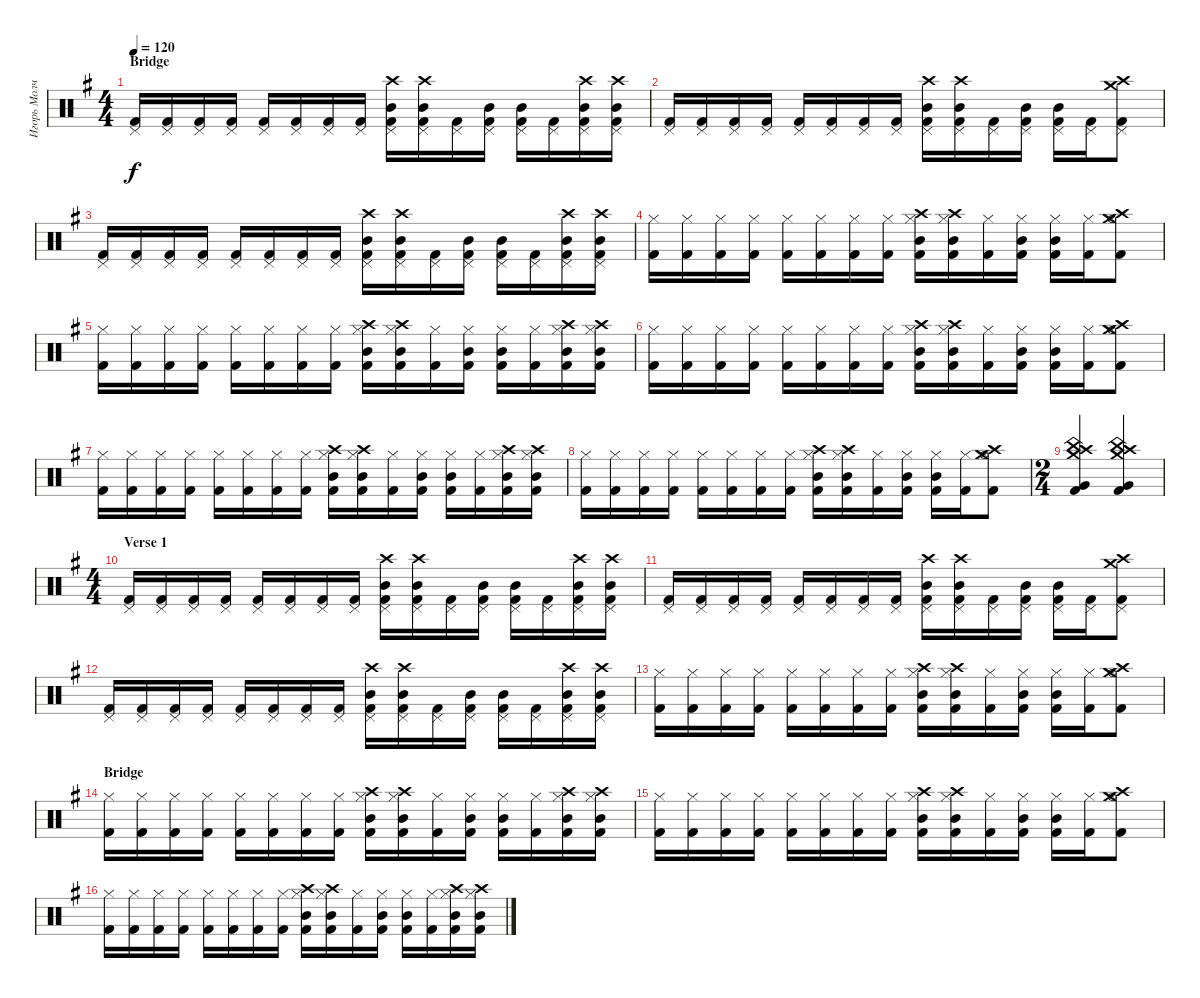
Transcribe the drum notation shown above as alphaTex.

\track ("Игорь Молчанов" "Игорь Молч") {instrument percussion}
\staff {score}
\articulation defaults
\ts (4 4)
\section ("" "Bridge")
\tempo 120
\clef neutral
\ks eminor
("Pedal Hi-Hat (hit)" "Kick (hit) 2").16{dy f} ("Pedal Hi-Hat (hit)" "Kick (hit) 2").16 ("Pedal Hi-Hat (hit)" "Kick (hit) 2").16 ("Pedal Hi-Hat (hit)" "Kick (hit) 2").16 ("Pedal Hi-Hat (hit)" "Kick (hit) 2").16 ("Pedal Hi-Hat (hit)" "Kick (hit) 2").16 ("Pedal Hi-Hat (hit)" "Kick (hit) 2").16 ("Pedal Hi-Hat (hit)" "Kick (hit) 2").16 ("Mid Tom (hit)" "Crash high (hit)" "Pedal Hi-Hat (hit)" "Kick (hit) 2").16 ("Mid Tom (hit)" "Crash high (hit)" "Pedal Hi-Hat (hit)" "Kick (hit) 2").16 ("Pedal Hi-Hat (hit)" "Kick (hit) 2").16 ("Mid Tom (hit)" "Pedal Hi-Hat (hit)" "Kick (hit) 2").16 ("Mid Tom (hit)" "Pedal Hi-Hat (hit)" "Kick (hit) 2").16 ("Pedal Hi-Hat (hit)" "Kick (hit) 2").16 ("Mid Tom (hit)" "Crash high (hit)" "Pedal Hi-Hat (hit)" "Kick (hit) 2").16 ("Mid Tom (hit)" "Crash high (hit)" "Pedal Hi-Hat (hit)" "Kick (hit) 2").16 |
("Pedal Hi-Hat (hit)" "Kick (hit) 2").16 ("Pedal Hi-Hat (hit)" "Kick (hit) 2").16 ("Pedal Hi-Hat (hit)" "Kick (hit) 2").16 ("Pedal Hi-Hat (hit)" "Kick (hit) 2").16 ("Pedal Hi-Hat (hit)" "Kick (hit) 2").16 ("Pedal Hi-Hat (hit)" "Kick (hit) 2").16 ("Pedal Hi-Hat (hit)" "Kick (hit) 2").16 ("Pedal Hi-Hat (hit)" "Kick (hit) 2").16 ("Mid Tom (hit)" "Crash high (hit)" "Pedal Hi-Hat (hit)" "Kick (hit) 2").16 ("Mid Tom (hit)" "Crash high (hit)" "Pedal Hi-Hat (hit)" "Kick (hit) 2").16 ("Pedal Hi-Hat (hit)" "Kick (hit) 2").16 ("Mid Tom (hit)" "Pedal Hi-Hat (hit)" "Kick (hit) 2").16 ("Mid Tom (hit)" "Pedal Hi-Hat (hit)" "Kick (hit) 2").16 ("Pedal Hi-Hat (hit)" "Kick (hit) 2").16 ("Crash medium (hit)" "Crash high (hit)" "Pedal Hi-Hat (hit)" "Kick (hit) 2").8 |
("Pedal Hi-Hat (hit)" "Kick (hit) 2").16 ("Pedal Hi-Hat (hit)" "Kick (hit) 2").16 ("Pedal Hi-Hat (hit)" "Kick (hit) 2").16 ("Pedal Hi-Hat (hit)" "Kick (hit) 2").16 ("Pedal Hi-Hat (hit)" "Kick (hit) 2").16 ("Pedal Hi-Hat (hit)" "Kick (hit) 2").16 ("Pedal Hi-Hat (hit)" "Kick (hit) 2").16 ("Pedal Hi-Hat (hit)" "Kick (hit) 2").16 ("Mid Tom (hit)" "Crash high (hit)" "Pedal Hi-Hat (hit)" "Kick (hit) 2").16 ("Mid Tom (hit)" "Crash high (hit)" "Pedal Hi-Hat (hit)" "Kick (hit) 2").16 ("Pedal Hi-Hat (hit)" "Kick (hit) 2").16 ("Mid Tom (hit)" "Pedal Hi-Hat (hit)" "Kick (hit) 2").16 ("Mid Tom (hit)" "Pedal Hi-Hat (hit)" "Kick (hit) 2").16 ("Pedal Hi-Hat (hit)" "Kick (hit) 2").16 ("Mid Tom (hit)" "Crash high (hit)" "Pedal Hi-Hat (hit)" "Kick (hit) 2").16 ("Mid Tom (hit)" "Crash high (hit)" "Pedal Hi-Hat (hit)" "Kick (hit) 2").16 |
("Hi-Hat (closed)" "Kick (hit) 2").16 ("Hi-Hat (closed)" "Kick (hit) 2").16 ("Hi-Hat (closed)" "Kick (hit) 2").16 ("Hi-Hat (closed)" "Kick (hit) 2").16 ("Hi-Hat (closed)" "Kick (hit) 2").16 ("Hi-Hat (closed)" "Kick (hit) 2").16 ("Hi-Hat (closed)" "Kick (hit) 2").16 ("Hi-Hat (closed)" "Kick (hit) 2").16 ("Mid Tom (hit)" "Crash high (hit)" "Hi-Hat (closed)" "Kick (hit) 2").16 ("Mid Tom (hit)" "Crash high (hit)" "Hi-Hat (closed)" "Kick (hit) 2").16 ("Hi-Hat (closed)" "Kick (hit) 2").16 ("Mid Tom (hit)" "Hi-Hat (closed)" "Kick (hit) 2").16 ("Mid Tom (hit)" "Hi-Hat (closed)" "Kick (hit) 2").16 ("Hi-Hat (closed)" "Kick (hit) 2").16 ("Crash medium (hit)" "Crash high (hit)" "Hi-Hat (open)" "Kick (hit) 2").8 |
\section ("" "")
("Hi-Hat (closed)" "Kick (hit) 2").16 ("Hi-Hat (closed)" "Kick (hit) 2").16 ("Hi-Hat (closed)" "Kick (hit) 2").16 ("Hi-Hat (closed)" "Kick (hit) 2").16 ("Hi-Hat (closed)" "Kick (hit) 2").16 ("Hi-Hat (closed)" "Kick (hit) 2").16 ("Hi-Hat (closed)" "Kick (hit) 2").16 ("Hi-Hat (closed)" "Kick (hit) 2").16 ("Mid Tom (hit)" "Crash high (hit)" "Hi-Hat (closed)" "Kick (hit) 2").16 ("Mid Tom (hit)" "Crash high (hit)" "Hi-Hat (closed)" "Kick (hit) 2").16 ("Hi-Hat (closed)" "Kick (hit) 2").16 ("Mid Tom (hit)" "Hi-Hat (closed)" "Kick (hit) 2").16 ("Mid Tom (hit)" "Hi-Hat (closed)" "Kick (hit) 2").16 ("Hi-Hat (closed)" "Kick (hit) 2").16 ("Mid Tom (hit)" "Crash high (hit)" "Hi-Hat (closed)" "Kick (hit) 2").16 ("Mid Tom (hit)" "Crash high (hit)" "Hi-Hat (closed)" "Kick (hit) 2").16 |
\section ("" "")
("Hi-Hat (closed)" "Kick (hit) 2").16 ("Hi-Hat (closed)" "Kick (hit) 2").16 ("Hi-Hat (closed)" "Kick (hit) 2").16 ("Hi-Hat (closed)" "Kick (hit) 2").16 ("Hi-Hat (closed)" "Kick (hit) 2").16 ("Hi-Hat (closed)" "Kick (hit) 2").16 ("Hi-Hat (closed)" "Kick (hit) 2").16 ("Hi-Hat (closed)" "Kick (hit) 2").16 ("Mid Tom (hit)" "Crash high (hit)" "Hi-Hat (closed)" "Kick (hit) 2").16 ("Mid Tom (hit)" "Crash high (hit)" "Hi-Hat (closed)" "Kick (hit) 2").16 ("Hi-Hat (closed)" "Kick (hit) 2").16 ("Mid Tom (hit)" "Hi-Hat (closed)" "Kick (hit) 2").16 ("Mid Tom (hit)" "Hi-Hat (closed)" "Kick (hit) 2").16 ("Hi-Hat (closed)" "Kick (hit) 2").16 ("Crash medium (hit)" "Crash high (hit)" "Hi-Hat (open)" "Kick (hit) 2").8 |
("Hi-Hat (closed)" "Kick (hit) 2").16 ("Hi-Hat (closed)" "Kick (hit) 2").16 ("Hi-Hat (closed)" "Kick (hit) 2").16 ("Hi-Hat (closed)" "Kick (hit) 2").16 ("Hi-Hat (closed)" "Kick (hit) 2").16 ("Hi-Hat (closed)" "Kick (hit) 2").16 ("Hi-Hat (closed)" "Kick (hit) 2").16 ("Hi-Hat (closed)" "Kick (hit) 2").16 ("Mid Tom (hit)" "Crash high (hit)" "Hi-Hat (closed)" "Kick (hit) 2").16 ("Mid Tom (hit)" "Crash high (hit)" "Hi-Hat (closed)" "Kick (hit) 2").16 ("Hi-Hat (closed)" "Kick (hit) 2").16 ("Mid Tom (hit)" "Hi-Hat (closed)" "Kick (hit) 2").16 ("Mid Tom (hit)" "Hi-Hat (closed)" "Kick (hit) 2").16 ("Hi-Hat (closed)" "Kick (hit) 2").16 ("Mid Tom (hit)" "Crash high (hit)" "Hi-Hat (closed)" "Kick (hit) 2").16 ("Mid Tom (hit)" "Crash high (hit)" "Hi-Hat (closed)" "Kick (hit) 2").16 |
("Hi-Hat (closed)" "Kick (hit) 2").16 ("Hi-Hat (closed)" "Kick (hit) 2").16 ("Hi-Hat (closed)" "Kick (hit) 2").16 ("Hi-Hat (closed)" "Kick (hit) 2").16 ("Hi-Hat (closed)" "Kick (hit) 2").16 ("Hi-Hat (closed)" "Kick (hit) 2").16 ("Hi-Hat (closed)" "Kick (hit) 2").16 ("Hi-Hat (closed)" "Kick (hit) 2").16 ("Mid Tom (hit)" "Crash high (hit)" "Hi-Hat (closed)" "Kick (hit) 2").16 ("Mid Tom (hit)" "Crash high (hit)" "Hi-Hat (closed)" "Kick (hit) 2").16 ("Hi-Hat (closed)" "Kick (hit) 2").16 ("Mid Tom (hit)" "Hi-Hat (closed)" "Kick (hit) 2").16 ("Mid Tom (hit)" "Hi-Hat (closed)" "Kick (hit) 2").16 ("Hi-Hat (closed)" "Kick (hit) 2").16 ("Crash medium (hit)" "Crash high (hit)" "Hi-Hat (open)" "Kick (hit) 2").8 |
\ts (2 4)
("Crash medium (hit)" "China (hit)" "Crash high (hit)" "Very Low Tom (hit)" "Kick (hit) 2").4 ("Crash medium (hit)" "China (hit)" "Crash high (hit)" "Very Low Tom (hit)" "Kick (hit) 2").4 |
\ts (4 4)
\section ("" "Verse 1")
("Pedal Hi-Hat (hit)" "Kick (hit) 2").16 ("Pedal Hi-Hat (hit)" "Kick (hit) 2").16 ("Pedal Hi-Hat (hit)" "Kick (hit) 2").16 ("Pedal Hi-Hat (hit)" "Kick (hit) 2").16 ("Pedal Hi-Hat (hit)" "Kick (hit) 2").16 ("Pedal Hi-Hat (hit)" "Kick (hit) 2").16 ("Pedal Hi-Hat (hit)" "Kick (hit) 2").16 ("Pedal Hi-Hat (hit)" "Kick (hit) 2").16 ("Mid Tom (hit)" "Crash high (hit)" "Pedal Hi-Hat (hit)" "Kick (hit) 2").16 ("Mid Tom (hit)" "Crash high (hit)" "Pedal Hi-Hat (hit)" "Kick (hit) 2").16 ("Pedal Hi-Hat (hit)" "Kick (hit) 2").16 ("Mid Tom (hit)" "Pedal Hi-Hat (hit)" "Kick (hit) 2").16 ("Mid Tom (hit)" "Pedal Hi-Hat (hit)" "Kick (hit) 2").16 ("Pedal Hi-Hat (hit)" "Kick (hit) 2").16 ("Mid Tom (hit)" "Crash high (hit)" "Pedal Hi-Hat (hit)" "Kick (hit) 2").16 ("Mid Tom (hit)" "Crash high (hit)" "Pedal Hi-Hat (hit)" "Kick (hit) 2").16 |
("Pedal Hi-Hat (hit)" "Kick (hit) 2").16 ("Pedal Hi-Hat (hit)" "Kick (hit) 2").16 ("Pedal Hi-Hat (hit)" "Kick (hit) 2").16 ("Pedal Hi-Hat (hit)" "Kick (hit) 2").16 ("Pedal Hi-Hat (hit)" "Kick (hit) 2").16 ("Pedal Hi-Hat (hit)" "Kick (hit) 2").16 ("Pedal Hi-Hat (hit)" "Kick (hit) 2").16 ("Pedal Hi-Hat (hit)" "Kick (hit) 2").16 ("Mid Tom (hit)" "Crash high (hit)" "Pedal Hi-Hat (hit)" "Kick (hit) 2").16 ("Mid Tom (hit)" "Crash high (hit)" "Pedal Hi-Hat (hit)" "Kick (hit) 2").16 ("Pedal Hi-Hat (hit)" "Kick (hit) 2").16 ("Mid Tom (hit)" "Pedal Hi-Hat (hit)" "Kick (hit) 2").16 ("Mid Tom (hit)" "Pedal Hi-Hat (hit)" "Kick (hit) 2").16 ("Pedal Hi-Hat (hit)" "Kick (hit) 2").16 ("Crash medium (hit)" "Crash high (hit)" "Pedal Hi-Hat (hit)" "Kick (hit) 2").8 |
("Pedal Hi-Hat (hit)" "Kick (hit) 2").16 ("Pedal Hi-Hat (hit)" "Kick (hit) 2").16 ("Pedal Hi-Hat (hit)" "Kick (hit) 2").16 ("Pedal Hi-Hat (hit)" "Kick (hit) 2").16 ("Pedal Hi-Hat (hit)" "Kick (hit) 2").16 ("Pedal Hi-Hat (hit)" "Kick (hit) 2").16 ("Pedal Hi-Hat (hit)" "Kick (hit) 2").16 ("Pedal Hi-Hat (hit)" "Kick (hit) 2").16 ("Mid Tom (hit)" "Crash high (hit)" "Pedal Hi-Hat (hit)" "Kick (hit) 2").16 ("Mid Tom (hit)" "Crash high (hit)" "Pedal Hi-Hat (hit)" "Kick (hit) 2").16 ("Pedal Hi-Hat (hit)" "Kick (hit) 2").16 ("Mid Tom (hit)" "Pedal Hi-Hat (hit)" "Kick (hit) 2").16 ("Mid Tom (hit)" "Pedal Hi-Hat (hit)" "Kick (hit) 2").16 ("Pedal Hi-Hat (hit)" "Kick (hit) 2").16 ("Mid Tom (hit)" "Crash high (hit)" "Pedal Hi-Hat (hit)" "Kick (hit) 2").16 ("Mid Tom (hit)" "Crash high (hit)" "Pedal Hi-Hat (hit)" "Kick (hit) 2").16 |
("Hi-Hat (closed)" "Kick (hit) 2").16 ("Hi-Hat (closed)" "Kick (hit) 2").16 ("Hi-Hat (closed)" "Kick (hit) 2").16 ("Hi-Hat (closed)" "Kick (hit) 2").16 ("Hi-Hat (closed)" "Kick (hit) 2").16 ("Hi-Hat (closed)" "Kick (hit) 2").16 ("Hi-Hat (closed)" "Kick (hit) 2").16 ("Hi-Hat (closed)" "Kick (hit) 2").16 ("Mid Tom (hit)" "Crash high (hit)" "Hi-Hat (closed)" "Kick (hit) 2").16 ("Mid Tom (hit)" "Crash high (hit)" "Hi-Hat (closed)" "Kick (hit) 2").16 ("Hi-Hat (closed)" "Kick (hit) 2").16 ("Mid Tom (hit)" "Hi-Hat (closed)" "Kick (hit) 2").16 ("Mid Tom (hit)" "Hi-Hat (closed)" "Kick (hit) 2").16 ("Hi-Hat (closed)" "Kick (hit) 2").16 ("Crash medium (hit)" "Crash high (hit)" "Hi-Hat (open)" "Kick (hit) 2").8 |
\section ("" "Bridge")
("Hi-Hat (closed)" "Kick (hit) 2").16 ("Hi-Hat (closed)" "Kick (hit) 2").16 ("Hi-Hat (closed)" "Kick (hit) 2").16 ("Hi-Hat (closed)" "Kick (hit) 2").16 ("Hi-Hat (closed)" "Kick (hit) 2").16 ("Hi-Hat (closed)" "Kick (hit) 2").16 ("Hi-Hat (closed)" "Kick (hit) 2").16 ("Hi-Hat (closed)" "Kick (hit) 2").16 ("Mid Tom (hit)" "Crash high (hit)" "Hi-Hat (closed)" "Kick (hit) 2").16 ("Mid Tom (hit)" "Crash high (hit)" "Hi-Hat (closed)" "Kick (hit) 2").16 ("Hi-Hat (closed)" "Kick (hit) 2").16 ("Mid Tom (hit)" "Hi-Hat (closed)" "Kick (hit) 2").16 ("Mid Tom (hit)" "Hi-Hat (closed)" "Kick (hit) 2").16 ("Hi-Hat (closed)" "Kick (hit) 2").16 ("Mid Tom (hit)" "Crash high (hit)" "Hi-Hat (closed)" "Kick (hit) 2").16 ("Mid Tom (hit)" "Crash high (hit)" "Hi-Hat (closed)" "Kick (hit) 2").16 |
("Hi-Hat (closed)" "Kick (hit) 2").16 ("Hi-Hat (closed)" "Kick (hit) 2").16 ("Hi-Hat (closed)" "Kick (hit) 2").16 ("Hi-Hat (closed)" "Kick (hit) 2").16 ("Hi-Hat (closed)" "Kick (hit) 2").16 ("Hi-Hat (closed)" "Kick (hit) 2").16 ("Hi-Hat (closed)" "Kick (hit) 2").16 ("Hi-Hat (closed)" "Kick (hit) 2").16 ("Mid Tom (hit)" "Crash high (hit)" "Hi-Hat (closed)" "Kick (hit) 2").16 ("Mid Tom (hit)" "Crash high (hit)" "Hi-Hat (closed)" "Kick (hit) 2").16 ("Hi-Hat (closed)" "Kick (hit) 2").16 ("Mid Tom (hit)" "Hi-Hat (closed)" "Kick (hit) 2").16 ("Mid Tom (hit)" "Hi-Hat (closed)" "Kick (hit) 2").16 ("Hi-Hat (closed)" "Kick (hit) 2").16 ("Crash medium (hit)" "Crash high (hit)" "Hi-Hat (open)" "Kick (hit) 2").8 |
("Hi-Hat (closed)" "Kick (hit) 2").16 ("Hi-Hat (closed)" "Kick (hit) 2").16 ("Hi-Hat (closed)" "Kick (hit) 2").16 ("Hi-Hat (closed)" "Kick (hit) 2").16 ("Hi-Hat (closed)" "Kick (hit) 2").16 ("Hi-Hat (closed)" "Kick (hit) 2").16 ("Hi-Hat (closed)" "Kick (hit) 2").16 ("Hi-Hat (closed)" "Kick (hit) 2").16 ("Mid Tom (hit)" "Crash high (hit)" "Hi-Hat (closed)" "Kick (hit) 2").16 ("Mid Tom (hit)" "Crash high (hit)" "Hi-Hat (closed)" "Kick (hit) 2").16 ("Hi-Hat (closed)" "Kick (hit) 2").16 ("Mid Tom (hit)" "Hi-Hat (closed)" "Kick (hit) 2").16 ("Mid Tom (hit)" "Hi-Hat (closed)" "Kick (hit) 2").16 ("Hi-Hat (closed)" "Kick (hit) 2").16 ("Mid Tom (hit)" "Crash high (hit)" "Hi-Hat (closed)" "Kick (hit) 2").16 ("Mid Tom (hit)" "Crash high (hit)" "Hi-Hat (closed)" "Kick (hit) 2").16
